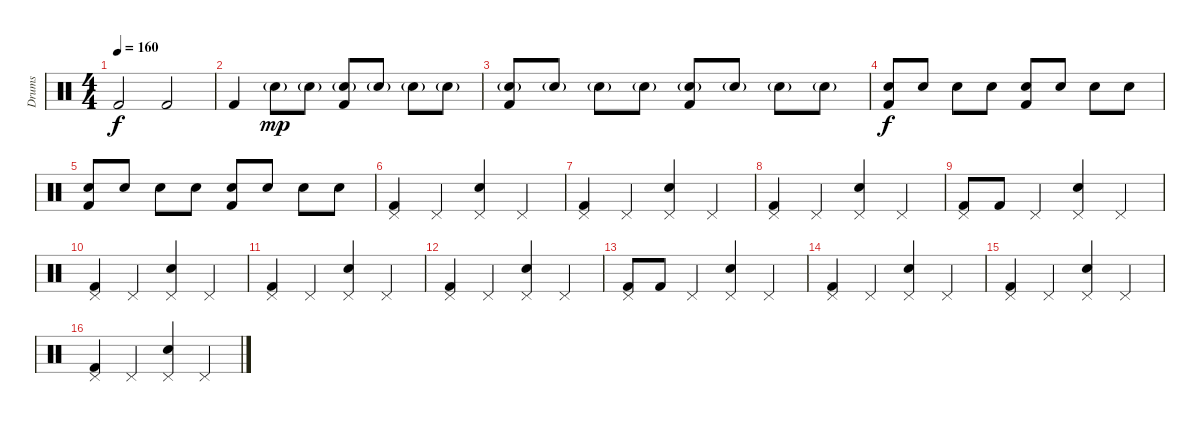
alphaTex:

\track ("Drums" "Drums") {instrument percussion}
\staff {score}
\articulation defaults
\ts (4 4)
\tempo 160
\clef neutral
\ks c "Kick (hit) 2".2{dy f} "Kick (hit) 2".2
|
"Kick (hit) 2".4 "Snare (hit) 2"{g}.8{dy mp} "Snare (hit) 2"{g}.8 ("Kick (hit) 2" "Snare (hit) 2"{g}).8 "Snare (hit) 2"{g}.8 "Snare (hit) 2"{g}.8 "Snare (hit) 2"{g}.8 |
("Kick (hit) 2" "Snare (hit) 2"{g}).8 "Snare (hit) 2"{g}.8 "Snare (hit) 2"{g}.8 "Snare (hit) 2"{g}.8 ("Kick (hit) 2" "Snare (hit) 2"{g}).8 "Snare (hit) 2"{g}.8 "Snare (hit) 2"{g}.8 "Snare (hit) 2"{g}.8 |
("Kick (hit) 2" "Snare (hit) 2").8{dy f} "Snare (hit) 2".8 "Snare (hit) 2".8 "Snare (hit) 2".8 ("Kick (hit) 2" "Snare (hit) 2").8 "Snare (hit) 2".8 "Snare (hit) 2".8 "Snare (hit) 2".8 |
("Kick (hit) 2" "Snare (hit) 2").8 "Snare (hit) 2".8 "Snare (hit) 2".8 "Snare (hit) 2".8 ("Kick (hit) 2" "Snare (hit) 2").8 "Snare (hit) 2".8 "Snare (hit) 2".8 "Snare (hit) 2".8 |
("Pedal Hi-Hat (hit)" "Kick (hit) 2").4 "Pedal Hi-Hat (hit)".4 ("Pedal Hi-Hat (hit)" "Snare (hit) 2").4 "Pedal Hi-Hat (hit)".4 |
("Pedal Hi-Hat (hit)" "Kick (hit) 2").4 "Pedal Hi-Hat (hit)".4 ("Pedal Hi-Hat (hit)" "Snare (hit) 2").4 "Pedal Hi-Hat (hit)".4 |
("Pedal Hi-Hat (hit)" "Kick (hit) 2").4 "Pedal Hi-Hat (hit)".4 ("Pedal Hi-Hat (hit)" "Snare (hit) 2").4 "Pedal Hi-Hat (hit)".4 |
("Pedal Hi-Hat (hit)" "Kick (hit) 2").8 "Kick (hit) 2".8 "Pedal Hi-Hat (hit)".4 ("Pedal Hi-Hat (hit)" "Snare (hit) 2").4 "Pedal Hi-Hat (hit)".4 |
("Pedal Hi-Hat (hit)" "Kick (hit) 2").4 "Pedal Hi-Hat (hit)".4 ("Pedal Hi-Hat (hit)" "Snare (hit) 2").4 "Pedal Hi-Hat (hit)".4 |
("Pedal Hi-Hat (hit)" "Kick (hit) 2").4 "Pedal Hi-Hat (hit)".4 ("Pedal Hi-Hat (hit)" "Snare (hit) 2").4 "Pedal Hi-Hat (hit)".4 |
("Pedal Hi-Hat (hit)" "Kick (hit) 2").4 "Pedal Hi-Hat (hit)".4 ("Pedal Hi-Hat (hit)" "Snare (hit) 2").4 "Pedal Hi-Hat (hit)".4 |
("Pedal Hi-Hat (hit)" "Kick (hit) 2").8 "Kick (hit) 2".8 "Pedal Hi-Hat (hit)".4 ("Pedal Hi-Hat (hit)" "Snare (hit) 2").4 "Pedal Hi-Hat (hit)".4 |
("Pedal Hi-Hat (hit)" "Kick (hit) 2").4 "Pedal Hi-Hat (hit)".4 ("Pedal Hi-Hat (hit)" "Snare (hit) 2").4 "Pedal Hi-Hat (hit)".4 |
("Pedal Hi-Hat (hit)" "Kick (hit) 2").4 "Pedal Hi-Hat (hit)".4 ("Pedal Hi-Hat (hit)" "Snare (hit) 2").4 "Pedal Hi-Hat (hit)".4 |
("Pedal Hi-Hat (hit)" "Kick (hit) 2").4 "Pedal Hi-Hat (hit)".4 ("Pedal Hi-Hat (hit)" "Snare (hit) 2").4 "Pedal Hi-Hat (hit)".4
